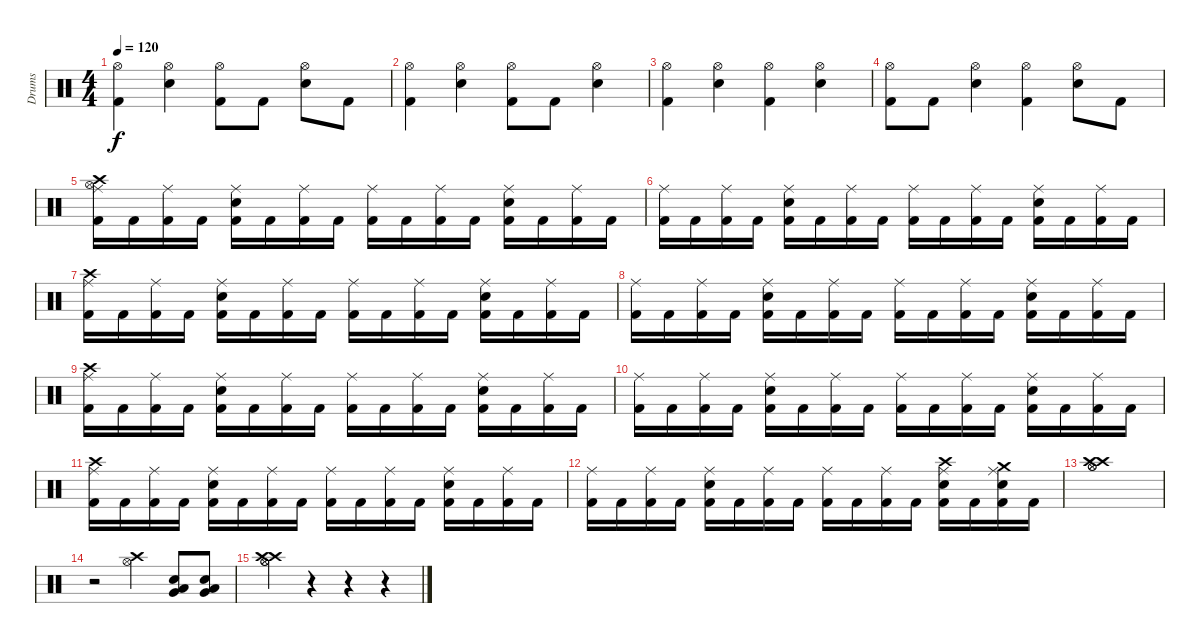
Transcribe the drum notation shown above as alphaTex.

\track ("Drums" "Drums") {instrument percussion}
\staff {score}
\articulation defaults
\ts (4 4)
\tempo 120
\clef neutral
\ks c
("Hi-Hat (open)" "Kick (hit) 2").4{dy f} ("Hi-Hat (open)" "Electric Snare (hit)").4 ("Hi-Hat (open)" "Kick (hit) 2").8 "Kick (hit) 2".8 ("Hi-Hat (open)" "Electric Snare (hit)").8 "Kick (hit) 2".8 |
("Hi-Hat (open)" "Kick (hit) 2").4 ("Hi-Hat (open)" "Electric Snare (hit)").4 ("Hi-Hat (open)" "Kick (hit) 2").8 "Kick (hit) 2".8 ("Hi-Hat (open)" "Electric Snare (hit)").4 |
("Hi-Hat (open)" "Kick (hit) 2").4 ("Hi-Hat (open)" "Electric Snare (hit)").4 ("Hi-Hat (open)" "Kick (hit) 2").4 ("Hi-Hat (open)" "Electric Snare (hit)").4 |
("Hi-Hat (open)" "Kick (hit) 2").8 "Kick (hit) 2".8 ("Hi-Hat (open)" "Electric Snare (hit)").4 ("Hi-Hat (open)" "Kick (hit) 2").4 ("Hi-Hat (open)" "Electric Snare (hit)").8 "Kick (hit) 2".8 |
("Hi-Hat (open)" "Crash high (hit)" "Ride (middle)" "Kick (hit) 2").16 "Kick (hit) 2".16 ("Ride (middle)" "Kick (hit) 2").16 "Kick (hit) 2".16 ("Electric Snare (hit)" "Ride (middle)" "Kick (hit) 2").16 "Kick (hit) 2".16 ("Ride (middle)" "Kick (hit) 2").16 "Kick (hit) 2".16 ("Ride (middle)" "Kick (hit) 2").16 "Kick (hit) 2".16 ("Ride (middle)" "Kick (hit) 2").16 "Kick (hit) 2".16 ("Electric Snare (hit)" "Ride (middle)" "Kick (hit) 2").16 "Kick (hit) 2".16 ("Ride (middle)" "Kick (hit) 2").16 "Kick (hit) 2".16 |
("Ride (middle)" "Kick (hit) 2").16 "Kick (hit) 2".16 ("Ride (middle)" "Kick (hit) 2").16 "Kick (hit) 2".16 ("Electric Snare (hit)" "Ride (middle)" "Kick (hit) 2").16 "Kick (hit) 2".16 ("Ride (middle)" "Kick (hit) 2").16 "Kick (hit) 2".16 ("Ride (middle)" "Kick (hit) 2").16 "Kick (hit) 2".16 ("Ride (middle)" "Kick (hit) 2").16 "Kick (hit) 2".16 ("Electric Snare (hit)" "Ride (middle)" "Kick (hit) 2").16 "Kick (hit) 2".16 ("Ride (middle)" "Kick (hit) 2").16 "Kick (hit) 2".16 |
("Crash high (hit)" "Ride (middle)" "Kick (hit) 2").16 "Kick (hit) 2".16 ("Ride (middle)" "Kick (hit) 2").16 "Kick (hit) 2".16 ("Electric Snare (hit)" "Ride (middle)" "Kick (hit) 2").16 "Kick (hit) 2".16 ("Ride (middle)" "Kick (hit) 2").16 "Kick (hit) 2".16 ("Ride (middle)" "Kick (hit) 2").16 "Kick (hit) 2".16 ("Ride (middle)" "Kick (hit) 2").16 "Kick (hit) 2".16 ("Electric Snare (hit)" "Ride (middle)" "Kick (hit) 2").16 "Kick (hit) 2".16 ("Ride (middle)" "Kick (hit) 2").16 "Kick (hit) 2".16 |
("Ride (middle)" "Kick (hit) 2").16 "Kick (hit) 2".16 ("Ride (middle)" "Kick (hit) 2").16 "Kick (hit) 2".16 ("Electric Snare (hit)" "Ride (middle)" "Kick (hit) 2").16 "Kick (hit) 2".16 ("Ride (middle)" "Kick (hit) 2").16 "Kick (hit) 2".16 ("Ride (middle)" "Kick (hit) 2").16 "Kick (hit) 2".16 ("Ride (middle)" "Kick (hit) 2").16 "Kick (hit) 2".16 ("Electric Snare (hit)" "Ride (middle)" "Kick (hit) 2").16 "Kick (hit) 2".16 ("Ride (middle)" "Kick (hit) 2").16 "Kick (hit) 2".16 |
("Crash high (hit)" "Ride (middle)" "Kick (hit) 2").16 "Kick (hit) 2".16 ("Ride (middle)" "Kick (hit) 2").16 "Kick (hit) 2".16 ("Electric Snare (hit)" "Ride (middle)" "Kick (hit) 2").16 "Kick (hit) 2".16 ("Ride (middle)" "Kick (hit) 2").16 "Kick (hit) 2".16 ("Ride (middle)" "Kick (hit) 2").16 "Kick (hit) 2".16 ("Ride (middle)" "Kick (hit) 2").16 "Kick (hit) 2".16 ("Electric Snare (hit)" "Ride (middle)" "Kick (hit) 2").16 "Kick (hit) 2".16 ("Ride (middle)" "Kick (hit) 2").16 "Kick (hit) 2".16 |
("Ride (middle)" "Kick (hit) 2").16 "Kick (hit) 2".16 ("Ride (middle)" "Kick (hit) 2").16 "Kick (hit) 2".16 ("Electric Snare (hit)" "Ride (middle)" "Kick (hit) 2").16 "Kick (hit) 2".16 ("Ride (middle)" "Kick (hit) 2").16 "Kick (hit) 2".16 ("Ride (middle)" "Kick (hit) 2").16 "Kick (hit) 2".16 ("Ride (middle)" "Kick (hit) 2").16 "Kick (hit) 2".16 ("Electric Snare (hit)" "Ride (middle)" "Kick (hit) 2").16 "Kick (hit) 2".16 ("Ride (middle)" "Kick (hit) 2").16 "Kick (hit) 2".16 |
("Crash high (hit)" "Ride (middle)" "Kick (hit) 2").16 "Kick (hit) 2".16 ("Ride (middle)" "Kick (hit) 2").16 "Kick (hit) 2".16 ("Electric Snare (hit)" "Ride (middle)" "Kick (hit) 2").16 "Kick (hit) 2".16 ("Ride (middle)" "Kick (hit) 2").16 "Kick (hit) 2".16 ("Ride (middle)" "Kick (hit) 2").16 "Kick (hit) 2".16 ("Ride (middle)" "Kick (hit) 2").16 "Kick (hit) 2".16 ("Electric Snare (hit)" "Ride (middle)" "Kick (hit) 2").16 "Kick (hit) 2".16 ("Ride (middle)" "Kick (hit) 2").16 "Kick (hit) 2".16 |
("Ride (middle)" "Kick (hit) 2").16 "Kick (hit) 2".16 ("Ride (middle)" "Kick (hit) 2").16 "Kick (hit) 2".16 ("Electric Snare (hit)" "Ride (middle)" "Kick (hit) 2").16 "Kick (hit) 2".16 ("Ride (middle)" "Kick (hit) 2").16 "Kick (hit) 2".16 ("Ride (middle)" "Kick (hit) 2").16 "Kick (hit) 2".16 ("Ride (middle)" "Kick (hit) 2").16 "Kick (hit) 2".16 ("Crash high (hit)" "Electric Snare (hit)" "Ride (middle)" "Kick (hit) 2").16 "Kick (hit) 2".16 ("Crash medium (hit)" "Electric Snare (hit)" "Ride (middle)" "Kick (hit) 2").16 "Kick (hit) 2".16 |
("Crash high (hit)" "Hi-Hat (open)" "Crash high (hit)" "Hi-Hat (open)").1 |
r.2 ("Hi-Hat (open)" "Crash high (hit)").4 ("Electric Snare (hit)" "Low Floor Tom (hit)" "Very Low Tom (hit)").8 ("Electric Snare (hit)" "Low Floor Tom (hit)" "Very Low Tom (hit)").8 |
("Hi-Hat (open)" "Crash high (hit)" "Hi-Hat (open)" "Crash high (hit)").4 r.4 r.4 r.4
